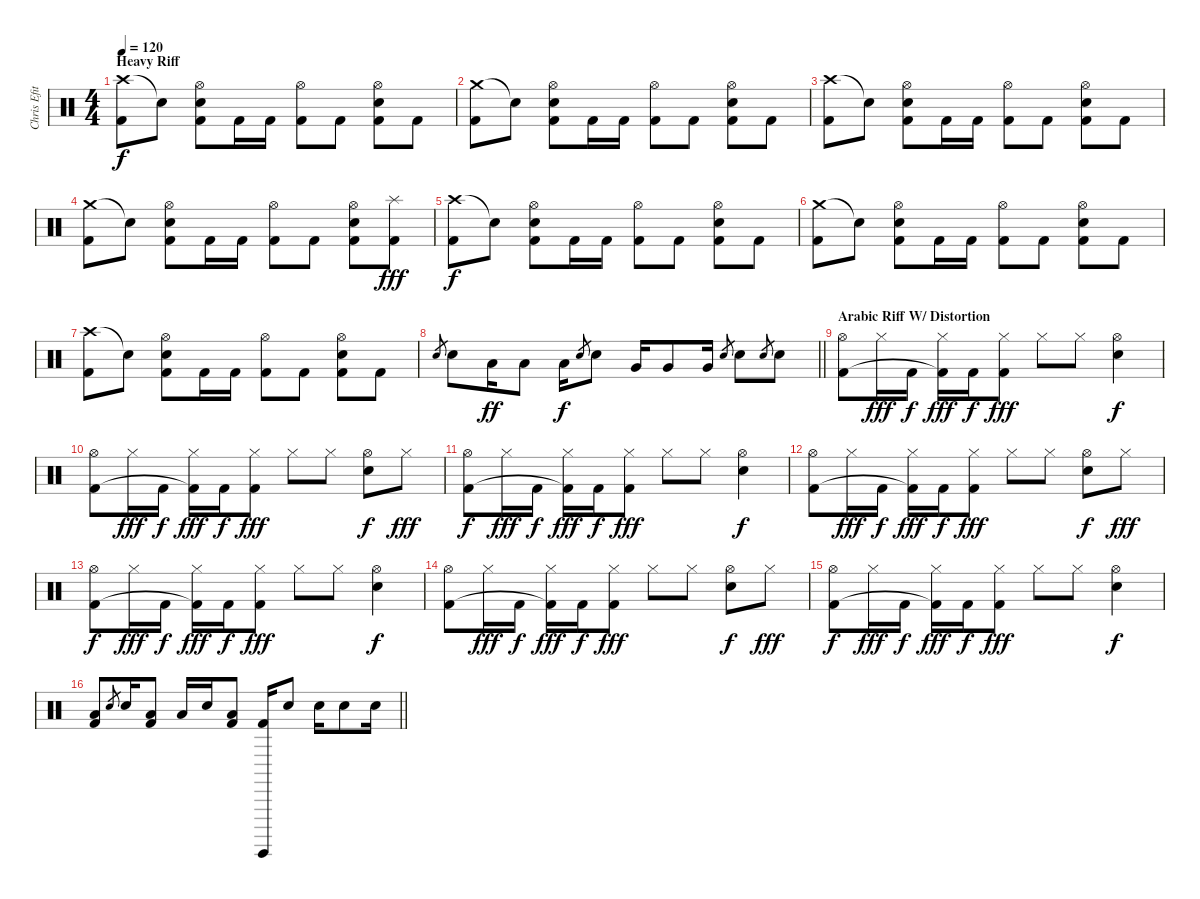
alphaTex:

\track ("Chris Efithimiadis (drums)" "Chris Efit") {instrument percussion}
\staff {score}
\articulation defaults
\ts (4 4)
\section ("" "Heavy Riff")
\tempo 120
\clef neutral
\ks c
("Crash high (hit)" "Kick (hit) 2").8{dy f} "Snare (hit)"{t}.8 ("Hi-Hat (open)" "Snare (hit) 2" "Kick (hit) 2").8 "Kick (hit) 2".16 "Kick (hit) 2".16 ("Hi-Hat (open)" "Kick (hit) 2").8 "Kick (hit) 2".8 ("Hi-Hat (open)" "Snare (hit) 2" "Kick (hit) 2").8 "Kick (hit) 2".8 |
("Crash medium (hit)" "Kick (hit) 2").8 "Snare (hit)"{t}.8 ("Hi-Hat (open)" "Snare (hit) 2" "Kick (hit) 2").8 "Kick (hit) 2".16 "Kick (hit) 2".16 ("Hi-Hat (open)" "Kick (hit) 2").8 "Kick (hit) 2".8 ("Hi-Hat (open)" "Snare (hit) 2" "Kick (hit) 2").8 "Kick (hit) 2".8 |
("Crash high (hit)" "Kick (hit) 2").8 "Snare (hit)"{t}.8 ("Hi-Hat (open)" "Snare (hit) 2" "Kick (hit) 2").8 "Kick (hit) 2".16 "Kick (hit) 2".16 ("Hi-Hat (open)" "Kick (hit) 2").8 "Kick (hit) 2".8 ("Hi-Hat (open)" "Snare (hit) 2" "Kick (hit) 2").8 "Kick (hit) 2".8 |
("Crash medium (hit)" "Kick (hit) 2").8 "Snare (hit)"{t}.8 ("Hi-Hat (open)" "Snare (hit) 2" "Kick (hit) 2").8 "Kick (hit) 2".16 "Kick (hit) 2".16 ("Hi-Hat (open)" "Kick (hit) 2").8 "Kick (hit) 2".8 ("Hi-Hat (open)" "Snare (hit) 2" "Kick (hit) 2").8 ("Splash (hit)" "Kick (hit) 2").8{dy fff} |
("Crash high (hit)" "Kick (hit) 2").8{dy f} "Snare (hit)"{t}.8 ("Hi-Hat (open)" "Snare (hit) 2" "Kick (hit) 2").8 "Kick (hit) 2".16 "Kick (hit) 2".16 ("Hi-Hat (open)" "Kick (hit) 2").8 "Kick (hit) 2".8 ("Hi-Hat (open)" "Snare (hit) 2" "Kick (hit) 2").8 "Kick (hit) 2".8 |
("Crash medium (hit)" "Kick (hit) 2").8 "Snare (hit)"{t}.8 ("Hi-Hat (open)" "Snare (hit) 2" "Kick (hit) 2").8 "Kick (hit) 2".16 "Kick (hit) 2".16 ("Hi-Hat (open)" "Kick (hit) 2").8 "Kick (hit) 2".8 ("Hi-Hat (open)" "Snare (hit) 2" "Kick (hit) 2").8 "Kick (hit) 2".8 |
("Crash high (hit)" "Kick (hit) 2").8 "Snare (hit)"{t}.8 ("Hi-Hat (open)" "Snare (hit) 2" "Kick (hit) 2").8 "Kick (hit) 2".16 "Kick (hit) 2".16 ("Hi-Hat (open)" "Kick (hit) 2").8 "Kick (hit) 2".8 ("Hi-Hat (open)" "Snare (hit) 2" "Kick (hit) 2").8 "Kick (hit) 2".8 |
\barLineRight lightlight "Snare (hit) 2".8{gr} "Snare (hit) 2".8 "Low Tom (hit)".16{dy ff} "Low Tom (hit)".8 "Low Tom (hit)".16{dy f} "Snare (hit) 2".8{gr} "Snare (hit) 2".8 "Very Low Tom (hit)".16 "Very Low Tom (hit)".8 "Very Low Tom (hit)".16 "Snare (hit) 2".8{gr} "Snare (hit) 2".8 "Snare (hit) 2".8{gr} "Snare (hit) 2".8
|
\section ("" "Arabic Riff W/ Distortion")
("Hi-Hat (open)" "Kick (hit) 2").8 "Hi-Hat (closed)".16{dy fff} "Kick (hit) 2".16{dy f} ("Hi-Hat (closed)" "Kick (hit) 2"{t}).16{dy fff} "Kick (hit) 2".16{dy f} ("Hi-Hat (closed)" "Kick (hit) 2").8{dy fff} "Hi-Hat (closed)".8 "Hi-Hat (closed)".8 ("Hi-Hat (open)" "Snare (hit) 2").4{dy f} |
("Hi-Hat (open)" "Kick (hit) 2").8 "Hi-Hat (closed)".16{dy fff} "Kick (hit) 2".16{dy f} ("Hi-Hat (closed)" "Kick (hit) 2"{t}).16{dy fff} "Kick (hit) 2".16{dy f} ("Hi-Hat (closed)" "Kick (hit) 2").8{dy fff} "Hi-Hat (closed)".8 "Hi-Hat (closed)".8 ("Hi-Hat (open)" "Snare (hit) 2").8{dy f} "Hi-Hat (closed)".8{dy fff} |
("Hi-Hat (open)" "Kick (hit) 2").8{dy f} "Hi-Hat (closed)".16{dy fff} "Kick (hit) 2".16{dy f} ("Hi-Hat (closed)" "Kick (hit) 2"{t}).16{dy fff} "Kick (hit) 2".16{dy f} ("Hi-Hat (closed)" "Kick (hit) 2").8{dy fff} "Hi-Hat (closed)".8 "Hi-Hat (closed)".8 ("Hi-Hat (open)" "Snare (hit) 2").4{dy f} |
("Hi-Hat (open)" "Kick (hit) 2").8 "Hi-Hat (closed)".16{dy fff} "Kick (hit) 2".16{dy f} ("Hi-Hat (closed)" "Kick (hit) 2"{t}).16{dy fff} "Kick (hit) 2".16{dy f} ("Hi-Hat (closed)" "Kick (hit) 2").8{dy fff} "Hi-Hat (closed)".8 "Hi-Hat (closed)".8 ("Hi-Hat (open)" "Snare (hit) 2").8{dy f} "Hi-Hat (closed)".8{dy fff} |
("Hi-Hat (open)" "Kick (hit) 2").8{dy f} "Hi-Hat (closed)".16{dy fff} "Kick (hit) 2".16{dy f} ("Hi-Hat (closed)" "Kick (hit) 2"{t}).16{dy fff} "Kick (hit) 2".16{dy f} ("Hi-Hat (closed)" "Kick (hit) 2").8{dy fff} "Hi-Hat (closed)".8 "Hi-Hat (closed)".8 ("Hi-Hat (open)" "Snare (hit) 2").4{dy f} |
("Hi-Hat (open)" "Kick (hit) 2").8 "Hi-Hat (closed)".16{dy fff} "Kick (hit) 2".16{dy f} ("Hi-Hat (closed)" "Kick (hit) 2"{t}).16{dy fff} "Kick (hit) 2".16{dy f} ("Hi-Hat (closed)" "Kick (hit) 2").8{dy fff} "Hi-Hat (closed)".8 "Hi-Hat (closed)".8 ("Hi-Hat (open)" "Snare (hit) 2").8{dy f} "Hi-Hat (closed)".8{dy fff} |
("Hi-Hat (open)" "Kick (hit) 2").8{dy f} "Hi-Hat (closed)".16{dy fff} "Kick (hit) 2".16{dy f} ("Hi-Hat (closed)" "Kick (hit) 2"{t}).16{dy fff} "Kick (hit) 2".16{dy f} ("Hi-Hat (closed)" "Kick (hit) 2").8{dy fff} "Hi-Hat (closed)".8 "Hi-Hat (closed)".8 ("Hi-Hat (open)" "Snare (hit) 2").4{dy f} |
\barLineRight lightlight
("Low Floor Tom (hit)" "Kick (hit) 2").8 "Snare (hit) 2".8{gr} "Snare (hit) 2".16 ("Low Floor Tom (hit)" "Kick (hit) 2").8 "Low Floor Tom (hit)".16 "Snare (hit) 2".16 ("Low Floor Tom (hit)" "Kick (hit) 2").8 ("Surdo (hit)" "Kick (hit) 2").16 "Snare (hit) 2".8 "Snare (hit) 2".16 "Snare (hit) 2".8 "Snare (hit) 2".16
